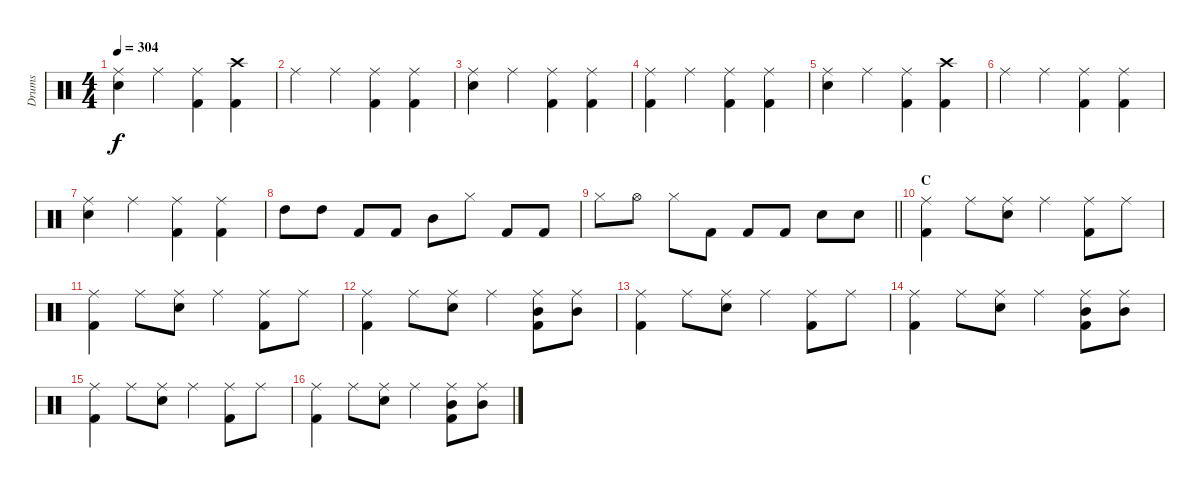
\track ("Drums" "Drums") {instrument percussion}
\staff {score}
\articulation defaults
\ts (4 4)
\tempo 304
\clef neutral
\ks c
("Ride (middle)" "Snare (hit) 2").4{dy f} "Ride (middle)".4 ("Ride (middle)" "Kick (hit) 2").4 ("Crash high (hit)" "Kick (hit) 2").4 |
"Ride (middle)".4 "Ride (middle)".4 ("Ride (middle)" "Kick (hit) 2").4 ("Ride (middle)" "Kick (hit) 2").4 |
("Ride (middle)" "Snare (hit) 2").4 "Ride (middle)".4 ("Ride (middle)" "Kick (hit) 2").4 ("Ride (middle)" "Kick (hit) 2").4 |
("Ride (middle)" "Kick (hit) 2").4 "Ride (middle)".4 ("Ride (middle)" "Kick (hit) 2").4 ("Ride (middle)" "Kick (hit) 2").4 |
("Ride (middle)" "Snare (hit) 2").4 "Ride (middle)".4 ("Ride (middle)" "Kick (hit) 2").4 ("Crash high (hit)" "Kick (hit) 2").4 |
"Ride (middle)".4 "Ride (middle)".4 ("Ride (middle)" "Kick (hit) 2").4 ("Ride (middle)" "Kick (hit) 2").4 |
("Ride (middle)" "Snare (hit) 2").4 "Ride (middle)".4 ("Ride (middle)" "Kick (hit) 2").4 ("Ride (middle)" "Kick (hit) 2").4 |
"High Tom (hit)".8 "High Tom (hit)".8 "Kick (hit) 2".8 "Kick (hit) 2".8 "Mid Tom (hit)".8 "Hi-Hat (closed)".8 "Kick (hit) 2".8 "Kick (hit) 2".8 |
\barLineRight lightlight "Hi-Hat (closed)".8 "Hi-Hat (open)".8 "Hi-Hat (closed)".8 "Kick (hit) 2".8 "Kick (hit) 2".8 "Kick (hit) 2".8 "Snare (hit) 2".8 "Snare (hit) 2".8
|
\section ("" "C")
("Ride (middle)" "Kick (hit) 2").4 "Ride (middle)".8 ("Ride (middle)" "Snare (hit) 2").8 "Ride (middle)".4 ("Ride (middle)" "Kick (hit) 2").8 "Ride (middle)".8 |
("Ride (middle)" "Kick (hit) 2").4 "Ride (middle)".8 ("Ride (middle)" "Snare (hit) 2").8 "Ride (middle)".4 ("Ride (middle)" "Kick (hit) 2").8 "Ride (middle)".8 |
("Ride (middle)" "Kick (hit) 2").4 "Ride (middle)".8 ("Ride (middle)" "Snare (hit) 2").8 "Ride (middle)".4 ("Ride (middle)" "Mid Tom (hit)" "Kick (hit) 2").8 ("Ride (middle)" "Mid Tom (hit)").8 |
("Ride (middle)" "Kick (hit) 2").4 "Ride (middle)".8 ("Ride (middle)" "Snare (hit) 2").8 "Ride (middle)".4 ("Ride (middle)" "Kick (hit) 2").8 "Ride (middle)".8 |
("Ride (middle)" "Kick (hit) 2").4 "Ride (middle)".8 ("Ride (middle)" "Snare (hit) 2").8 "Ride (middle)".4 ("Ride (middle)" "Mid Tom (hit)" "Kick (hit) 2").8 ("Ride (middle)" "Mid Tom (hit)").8 |
("Ride (middle)" "Kick (hit) 2").4 "Ride (middle)".8 ("Ride (middle)" "Snare (hit) 2").8 "Ride (middle)".4 ("Ride (middle)" "Kick (hit) 2").8 "Ride (middle)".8 |
("Ride (middle)" "Kick (hit) 2").4 "Ride (middle)".8 ("Ride (middle)" "Snare (hit) 2").8 "Ride (middle)".4 ("Ride (middle)" "Mid Tom (hit)" "Kick (hit) 2").8 ("Ride (middle)" "Mid Tom (hit)").8
